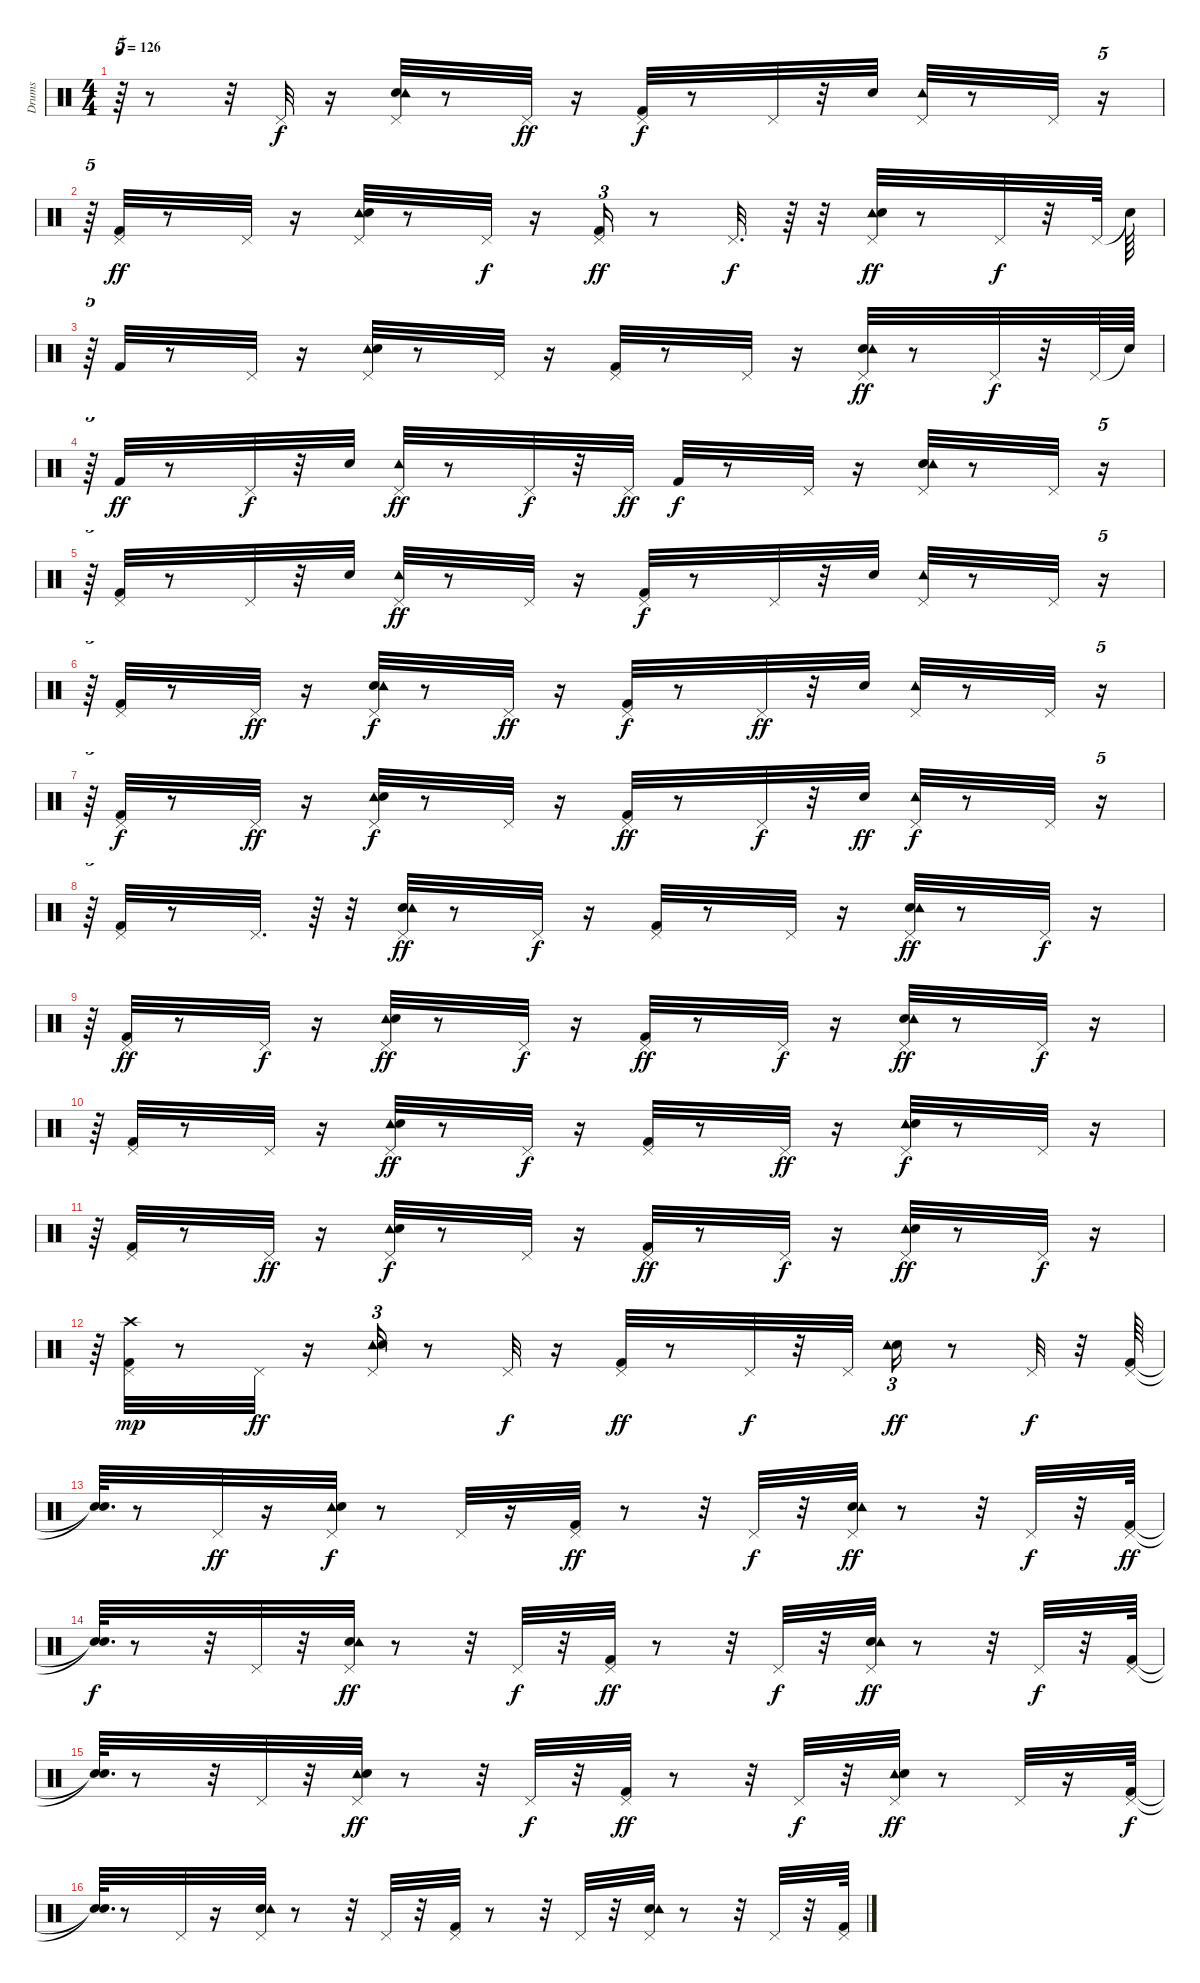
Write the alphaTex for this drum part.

\track ("Drums" "Drums") {instrument percussion}
\staff {score}
\articulation defaults
\ts (4 4)
\tempo 126
\clef neutral
\ks c
r.64{tu (5 4) dy f} r.8 r.32 "Pedal Hi-Hat (hit)".32 r.16 ("Electric Snare (hit)" "Tambourine (hit)" "Pedal Hi-Hat (hit)").32 r.8 "Pedal Hi-Hat (hit)".32{dy ff} r.16 ("Pedal Hi-Hat (hit)" "Kick (hit) 2").32{dy f} r.8 "Pedal Hi-Hat (hit)".32 r.32 "Electric Snare (hit)".32 ("Tambourine (hit)" "Pedal Hi-Hat (hit)").32 r.8 "Pedal Hi-Hat (hit)".32 r.16{tu (5 4)} |
r.64{tu (5 4)} ("Pedal Hi-Hat (hit)" "Kick (hit) 2").32{dy ff} r.8 "Pedal Hi-Hat (hit)".32 r.16 ("Pedal Hi-Hat (hit)" "Tambourine (hit)" "Electric Snare (hit)").32 r.8 "Pedal Hi-Hat (hit)".32{dy f} r.16 ("Kick (hit) 2" "Pedal Hi-Hat (hit)").16{tu (3 2) dy ff} r.8 "Pedal Hi-Hat (hit)".32{d dy f} r.64 r.32 ("Tambourine (hit)" "Electric Snare (hit)" "Pedal Hi-Hat (hit)").32{dy ff} r.8 "Pedal Hi-Hat (hit)".32{dy f} r.32 "Pedal Hi-Hat (hit)".64 "Snare (hit)"{t}.64 |
r.64{tu (5 4)} "Kick (hit) 2".32 r.8 "Pedal Hi-Hat (hit)".32 r.16 ("Tambourine (hit)" "Electric Snare (hit)" "Pedal Hi-Hat (hit)").32 r.8 "Pedal Hi-Hat (hit)".32 r.16 ("Kick (hit) 2" "Pedal Hi-Hat (hit)").32 r.8 "Pedal Hi-Hat (hit)".32 r.16 ("Electric Snare (hit)" "Tambourine (hit)" "Pedal Hi-Hat (hit)").32{dy ff} r.8 "Pedal Hi-Hat (hit)".32{dy f} r.32 "Pedal Hi-Hat (hit)".64 "Snare (hit)"{t}.64 |
r.64{tu (5 4)} "Kick (hit) 2".32{dy ff} r.8 "Pedal Hi-Hat (hit)".32{dy f} r.32 "Electric Snare (hit)".32 ("Pedal Hi-Hat (hit)" "Tambourine (hit)").32{dy ff} r.8 "Pedal Hi-Hat (hit)".32{dy f} r.32 "Pedal Hi-Hat (hit)".32{dy ff} "Kick (hit) 2".32{dy f} r.8 "Pedal Hi-Hat (hit)".32 r.16 ("Electric Snare (hit)" "Tambourine (hit)" "Pedal Hi-Hat (hit)").32 r.8 "Pedal Hi-Hat (hit)".32 r.16{tu (5 4)} |
r.64{tu (5 4)} ("Kick (hit) 2" "Pedal Hi-Hat (hit)").32 r.8 "Pedal Hi-Hat (hit)".32 r.32 "Electric Snare (hit)".32 ("Pedal Hi-Hat (hit)" "Tambourine (hit)").32{dy ff} r.8 "Pedal Hi-Hat (hit)".32 r.16 ("Pedal Hi-Hat (hit)" "Kick (hit) 2").32{dy f} r.8 "Pedal Hi-Hat (hit)".32 r.32 "Electric Snare (hit)".32 ("Pedal Hi-Hat (hit)" "Tambourine (hit)").32 r.8 "Pedal Hi-Hat (hit)".32 r.16{tu (5 4)} |
r.64{tu (5 4)} ("Pedal Hi-Hat (hit)" "Kick (hit) 2").32 r.8 "Pedal Hi-Hat (hit)".32{dy ff} r.16 ("Pedal Hi-Hat (hit)" "Electric Snare (hit)" "Tambourine (hit)").32{dy f} r.8 "Pedal Hi-Hat (hit)".32{dy ff} r.16 ("Kick (hit) 2" "Pedal Hi-Hat (hit)").32{dy f} r.8 "Pedal Hi-Hat (hit)".32{dy ff} r.32 "Electric Snare (hit)".32 ("Pedal Hi-Hat (hit)" "Tambourine (hit)").32 r.8 "Pedal Hi-Hat (hit)".32 r.16{tu (5 4)} |
r.64{tu (5 4)} ("Pedal Hi-Hat (hit)" "Kick (hit) 2").32{dy f} r.8 "Pedal Hi-Hat (hit)".32{dy ff} r.16 ("Tambourine (hit)" "Pedal Hi-Hat (hit)" "Electric Snare (hit)").32{dy f} r.8 "Pedal Hi-Hat (hit)".32 r.16 ("Pedal Hi-Hat (hit)" "Kick (hit) 2").32{dy ff} r.8 "Pedal Hi-Hat (hit)".32{dy f} r.32 "Electric Snare (hit)".32{dy ff} ("Tambourine (hit)" "Pedal Hi-Hat (hit)").32{dy f} r.8 "Pedal Hi-Hat (hit)".32 r.16{tu (5 4)} |
r.64{tu (5 4)} ("Kick (hit) 2" "Pedal Hi-Hat (hit)").32 r.8 "Pedal Hi-Hat (hit)".32{d} r.64 r.32 ("Pedal Hi-Hat (hit)" "Electric Snare (hit)" "Tambourine (hit)").32{dy ff} r.8 "Pedal Hi-Hat (hit)".32{dy f} r.16 ("Kick (hit) 2" "Pedal Hi-Hat (hit)").32 r.8 "Pedal Hi-Hat (hit)".32 r.16 ("Electric Snare (hit)" "Tambourine (hit)" "Pedal Hi-Hat (hit)").32{dy ff} r.8 "Pedal Hi-Hat (hit)".32{dy f} r.16 |
r.64 ("Pedal Hi-Hat (hit)" "Kick (hit) 2").32{dy ff} r.8 "Pedal Hi-Hat (hit)".32{dy f} r.16 ("Pedal Hi-Hat (hit)" "Tambourine (hit)" "Electric Snare (hit)").32{dy ff} r.8 "Pedal Hi-Hat (hit)".32{dy f} r.16 ("Kick (hit) 2" "Pedal Hi-Hat (hit)").32{dy ff} r.8 "Pedal Hi-Hat (hit)".32{dy f} r.16 ("Electric Snare (hit)" "Tambourine (hit)" "Pedal Hi-Hat (hit)").32{dy ff} r.8 "Pedal Hi-Hat (hit)".32{dy f} r.16 |
r.64 ("Kick (hit) 2" "Pedal Hi-Hat (hit)").32 r.8 "Pedal Hi-Hat (hit)".32 r.16 ("Pedal Hi-Hat (hit)" "Tambourine (hit)" "Electric Snare (hit)").32{dy ff} r.8 "Pedal Hi-Hat (hit)".32{dy f} r.16 ("Pedal Hi-Hat (hit)" "Kick (hit) 2").32 r.8 "Pedal Hi-Hat (hit)".32{dy ff} r.16 ("Tambourine (hit)" "Pedal Hi-Hat (hit)" "Electric Snare (hit)").32{dy f} r.8 "Pedal Hi-Hat (hit)".32 r.16 |
r.64 ("Kick (hit) 2" "Pedal Hi-Hat (hit)").32 r.8 "Pedal Hi-Hat (hit)".32{dy ff} r.16 ("Pedal Hi-Hat (hit)" "Tambourine (hit)" "Electric Snare (hit)").32{dy f} r.8 "Pedal Hi-Hat (hit)".32 r.16 ("Pedal Hi-Hat (hit)" "Kick (hit) 2").32{dy ff} r.8 "Pedal Hi-Hat (hit)".32{dy f} r.16 ("Tambourine (hit)" "Pedal Hi-Hat (hit)" "Electric Snare (hit)").32{dy ff} r.8 "Pedal Hi-Hat (hit)".32{dy f} r.16 |
r.64 ("Kick (hit) 2" "Pedal Hi-Hat (hit)" "Crash high (hit)").32{dy mp} r.8 "Pedal Hi-Hat (hit)".32{dy ff} r.16 ("Tambourine (hit)" "Electric Snare (hit)" "Pedal Hi-Hat (hit)").16{tu (3 2)} r.8 "Pedal Hi-Hat (hit)".32{dy f} r.16 ("Pedal Hi-Hat (hit)" "Kick (hit) 2").32{dy ff} r.8 "Pedal Hi-Hat (hit)".32{dy f} r.32 "Pedal Hi-Hat (hit)".32 ("Electric Snare (hit)" "Tambourine (hit)").16{tu (3 2) dy ff} r.8 "Pedal Hi-Hat (hit)".32{dy f} r.32 ("Pedal Hi-Hat (hit)" "Kick (hit) 2").64 |
("Snare (hit)"{t} "Snare (hit)"{t}).64{d} r.8 "Pedal Hi-Hat (hit)".32{dy ff} r.16 ("Tambourine (hit)" "Pedal Hi-Hat (hit)" "Electric Snare (hit)").32{dy f} r.8 "Pedal Hi-Hat (hit)".32 r.16 ("Pedal Hi-Hat (hit)" "Kick (hit) 2").32{dy ff} r.8 r.32 "Pedal Hi-Hat (hit)".32{dy f} r.32 ("Electric Snare (hit)" "Pedal Hi-Hat (hit)" "Tambourine (hit)").32{dy ff} r.8 r.32 "Pedal Hi-Hat (hit)".32{dy f} r.32 ("Kick (hit) 2" "Pedal Hi-Hat (hit)").64{dy ff} |
("Snare (hit)"{t} "Snare (hit)"{t}).64{d dy f} r.8 r.32 "Pedal Hi-Hat (hit)".32 r.32 ("Electric Snare (hit)" "Pedal Hi-Hat (hit)" "Tambourine (hit)").32{dy ff} r.8 r.32 "Pedal Hi-Hat (hit)".32{dy f} r.32 ("Pedal Hi-Hat (hit)" "Kick (hit) 2").32{dy ff} r.8 r.32 "Pedal Hi-Hat (hit)".32{dy f} r.32 ("Electric Snare (hit)" "Pedal Hi-Hat (hit)" "Tambourine (hit)").32{dy ff} r.8 r.32 "Pedal Hi-Hat (hit)".32{dy f} r.32 ("Pedal Hi-Hat (hit)" "Kick (hit) 2").64 |
("Snare (hit)"{t} "Snare (hit)"{t}).64{d} r.8 r.32 "Pedal Hi-Hat (hit)".32 r.32 ("Pedal Hi-Hat (hit)" "Tambourine (hit)" "Electric Snare (hit)").32{dy ff} r.8 r.32 "Pedal Hi-Hat (hit)".32{dy f} r.32 ("Kick (hit) 2" "Pedal Hi-Hat (hit)").32{dy ff} r.8 r.32 "Pedal Hi-Hat (hit)".32{dy f} r.32 ("Pedal Hi-Hat (hit)" "Tambourine (hit)" "Electric Snare (hit)").32{dy ff} r.8 "Pedal Hi-Hat (hit)".32 r.16 ("Pedal Hi-Hat (hit)" "Kick (hit) 2").64{dy f volume 10} |
("Snare (hit)"{t} "Snare (hit)"{t}).64{d} r.8 "Pedal Hi-Hat (hit)".32{volume 10} r.16 ("Electric Snare (hit)" "Tambourine (hit)" "Pedal Hi-Hat (hit)").32{volume 10} r.8 r.32 "Pedal Hi-Hat (hit)".32{volume 10} r.32 ("Kick (hit) 2" "Pedal Hi-Hat (hit)").32{volume 9} r.8 r.32 "Pedal Hi-Hat (hit)".32{volume 9} r.32 ("Pedal Hi-Hat (hit)" "Electric Snare (hit)" "Tambourine (hit)").32{volume 9} r.8 r.32 "Pedal Hi-Hat (hit)".32{volume 9} r.32 ("Kick (hit) 2" "Pedal Hi-Hat (hit)").64{volume 9}
